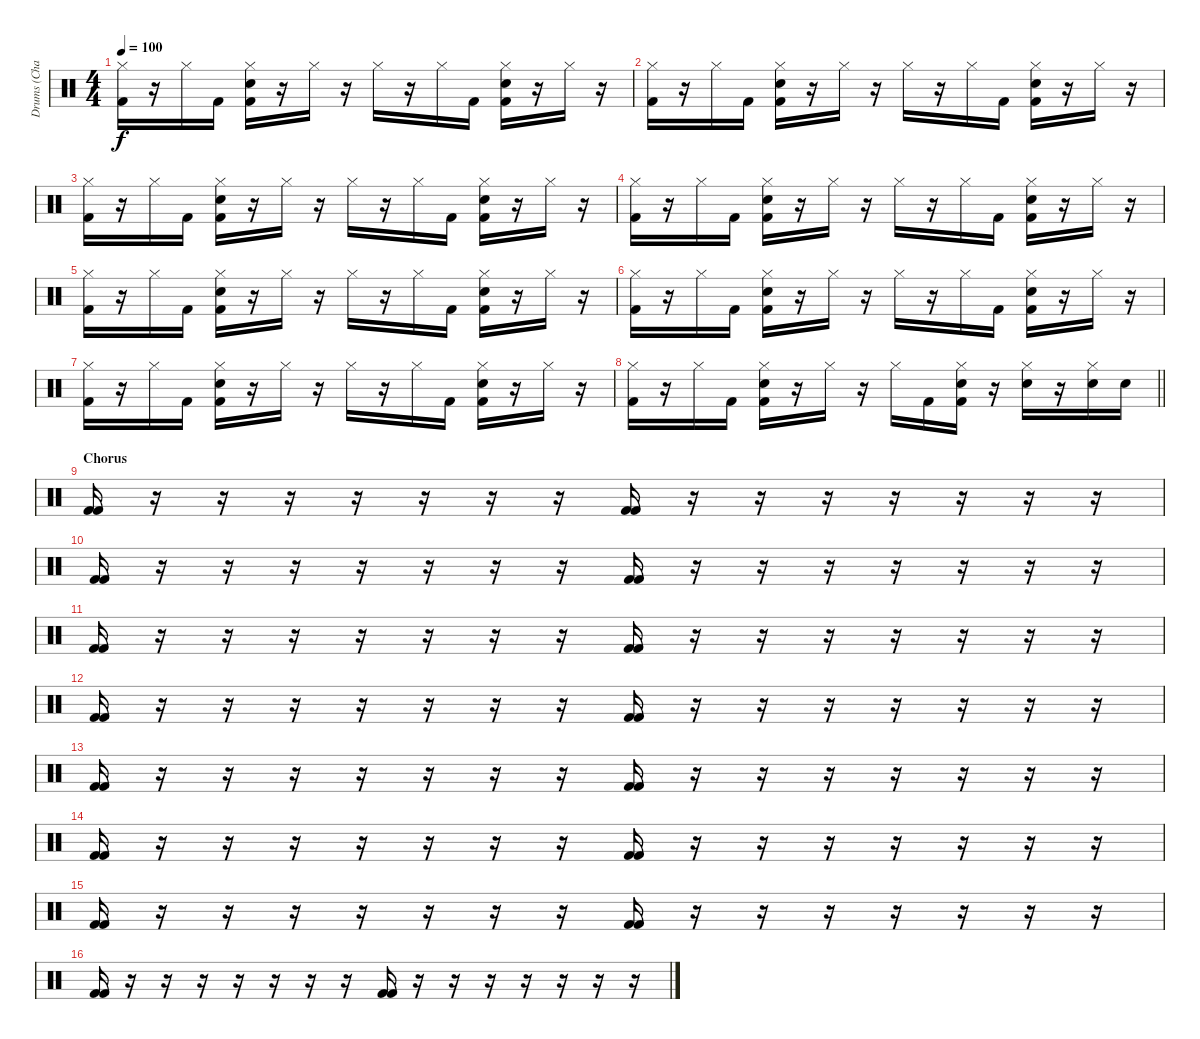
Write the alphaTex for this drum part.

\track ("Drums (Chad Smith)" "Drums (Cha") {instrument percussion}
\staff {score}
\articulation defaults
\ts (4 4)
\tempo 100
\clef neutral
\ks c
("Hi-Hat (closed)" "Kick (hit) 2").16{dy f} r.16 "Hi-Hat (closed)".16 "Kick (hit) 2".16 ("Hi-Hat (closed)" "Electric Snare (hit)" "Kick (hit) 2").16 r.16 "Hi-Hat (closed)".16 r.16 "Hi-Hat (closed)".16 r.16 "Hi-Hat (closed)".16 "Kick (hit) 2".16 ("Hi-Hat (closed)" "Electric Snare (hit)" "Kick (hit) 2").16 r.16 "Hi-Hat (closed)".16 r.16 |
("Hi-Hat (closed)" "Kick (hit) 2").16 r.16 "Hi-Hat (closed)".16 "Kick (hit) 2".16 ("Hi-Hat (closed)" "Electric Snare (hit)" "Kick (hit) 2").16 r.16 "Hi-Hat (closed)".16 r.16 "Hi-Hat (closed)".16 r.16 "Hi-Hat (closed)".16 "Kick (hit) 2".16 ("Hi-Hat (closed)" "Electric Snare (hit)" "Kick (hit) 2").16 r.16 "Hi-Hat (closed)".16 r.16 |
("Hi-Hat (closed)" "Kick (hit) 2").16 r.16 "Hi-Hat (closed)".16 "Kick (hit) 2".16 ("Hi-Hat (closed)" "Electric Snare (hit)" "Kick (hit) 2").16 r.16 "Hi-Hat (closed)".16 r.16 "Hi-Hat (closed)".16 r.16 "Hi-Hat (closed)".16 "Kick (hit) 2".16 ("Hi-Hat (closed)" "Electric Snare (hit)" "Kick (hit) 2").16 r.16 "Hi-Hat (closed)".16 r.16 |
("Hi-Hat (closed)" "Kick (hit) 2").16 r.16 "Hi-Hat (closed)".16 "Kick (hit) 2".16 ("Hi-Hat (closed)" "Electric Snare (hit)" "Kick (hit) 2").16 r.16 "Hi-Hat (closed)".16 r.16 "Hi-Hat (closed)".16 r.16 "Hi-Hat (closed)".16 "Kick (hit) 2".16 ("Hi-Hat (closed)" "Electric Snare (hit)" "Kick (hit) 2").16 r.16 "Hi-Hat (closed)".16 r.16 |
("Hi-Hat (closed)" "Kick (hit) 2").16 r.16 "Hi-Hat (closed)".16 "Kick (hit) 2".16 ("Hi-Hat (closed)" "Electric Snare (hit)" "Kick (hit) 2").16 r.16 "Hi-Hat (closed)".16 r.16 "Hi-Hat (closed)".16 r.16 "Hi-Hat (closed)".16 "Kick (hit) 2".16 ("Hi-Hat (closed)" "Electric Snare (hit)" "Kick (hit) 2").16 r.16 "Hi-Hat (closed)".16 r.16 |
("Hi-Hat (closed)" "Kick (hit) 2").16 r.16 "Hi-Hat (closed)".16 "Kick (hit) 2".16 ("Hi-Hat (closed)" "Electric Snare (hit)" "Kick (hit) 2").16 r.16 "Hi-Hat (closed)".16 r.16 "Hi-Hat (closed)".16 r.16 "Hi-Hat (closed)".16 "Kick (hit) 2".16 ("Hi-Hat (closed)" "Electric Snare (hit)" "Kick (hit) 2").16 r.16 "Hi-Hat (closed)".16 r.16 |
("Hi-Hat (closed)" "Kick (hit) 2").16 r.16 "Hi-Hat (closed)".16 "Kick (hit) 2".16 ("Hi-Hat (closed)" "Electric Snare (hit)" "Kick (hit) 2").16 r.16 "Hi-Hat (closed)".16 r.16 "Hi-Hat (closed)".16 r.16 "Hi-Hat (closed)".16 "Kick (hit) 2".16 ("Hi-Hat (closed)" "Electric Snare (hit)" "Kick (hit) 2").16 r.16 "Hi-Hat (closed)".16 r.16 |
\barLineRight lightlight
("Hi-Hat (closed)" "Kick (hit) 2").16 r.16 "Hi-Hat (closed)".16 "Kick (hit) 2".16 ("Hi-Hat (closed)" "Electric Snare (hit)" "Kick (hit) 2").16 r.16 "Hi-Hat (closed)".16 r.16 "Hi-Hat (closed)".16 "Kick (hit) 2".16 ("Hi-Hat (closed)" "Electric Snare (hit)" "Kick (hit) 2").16 r.16 ("Hi-Hat (closed)" "Electric Snare (hit)").16 r.16 ("Hi-Hat (closed)" "Electric Snare (hit)").16 "Electric Snare (hit)".16 |
\section ("" "Chorus")
("Kick (hit) 2" "Kick (hit) 2").16 r.16 r.16 r.16 r.16 r.16 r.16 r.16 ("Kick (hit) 2" "Kick (hit) 2").16 r.16 r.16 r.16 r.16 r.16 r.16 r.16 |
("Kick (hit) 2" "Kick (hit) 2").16 r.16 r.16 r.16 r.16 r.16 r.16 r.16 ("Kick (hit) 2" "Kick (hit) 2").16 r.16 r.16 r.16 r.16 r.16 r.16 r.16 |
("Kick (hit) 2" "Kick (hit) 2").16 r.16 r.16 r.16 r.16 r.16 r.16 r.16 ("Kick (hit) 2" "Kick (hit) 2").16 r.16 r.16 r.16 r.16 r.16 r.16 r.16 |
("Kick (hit) 2" "Kick (hit) 2").16 r.16 r.16 r.16 r.16 r.16 r.16 r.16 ("Kick (hit) 2" "Kick (hit) 2").16 r.16 r.16 r.16 r.16 r.16 r.16 r.16 |
("Kick (hit) 2" "Kick (hit) 2").16 r.16 r.16 r.16 r.16 r.16 r.16 r.16 ("Kick (hit) 2" "Kick (hit) 2").16 r.16 r.16 r.16 r.16 r.16 r.16 r.16 |
("Kick (hit) 2" "Kick (hit) 2").16 r.16 r.16 r.16 r.16 r.16 r.16 r.16 ("Kick (hit) 2" "Kick (hit) 2").16 r.16 r.16 r.16 r.16 r.16 r.16 r.16 |
("Kick (hit) 2" "Kick (hit) 2").16 r.16 r.16 r.16 r.16 r.16 r.16 r.16 ("Kick (hit) 2" "Kick (hit) 2").16 r.16 r.16 r.16 r.16 r.16 r.16 r.16 |
("Kick (hit) 2" "Kick (hit) 2").16 r.16 r.16 r.16 r.16 r.16 r.16 r.16 ("Kick (hit) 2" "Kick (hit) 2").16 r.16 r.16 r.16 r.16 r.16 r.16 r.16
